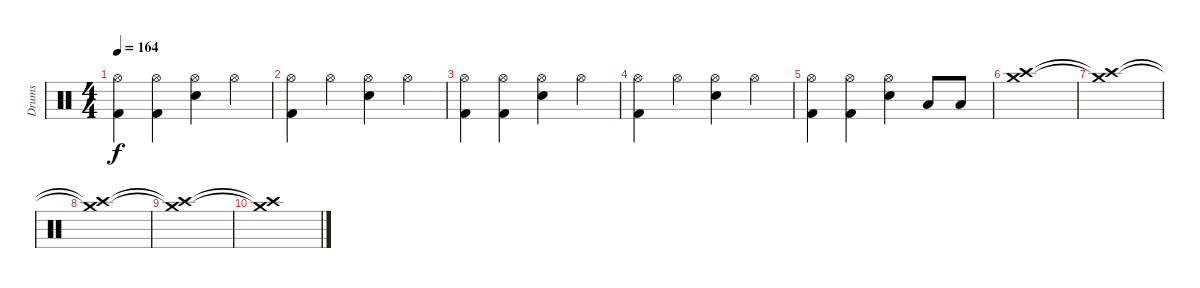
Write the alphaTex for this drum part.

\track ("Drums" "Drums") {instrument percussion}
\staff {score}
\articulation defaults
\ts (4 4)
\tempo 164
\clef neutral
\ks c
("Hi-Hat (open)" "Kick (hit) 2").4{dy f} ("Hi-Hat (open)" "Kick (hit) 2").4 ("Hi-Hat (open)" "Snare (hit) 2").4 "Hi-Hat (open)".4 |
("Hi-Hat (open)" "Kick (hit) 2").4 "Hi-Hat (open)".4 ("Hi-Hat (open)" "Snare (hit) 2").4 "Hi-Hat (open)".4 |
("Hi-Hat (open)" "Kick (hit) 2").4 ("Hi-Hat (open)" "Kick (hit) 2").4 ("Hi-Hat (open)" "Snare (hit) 2").4 "Hi-Hat (open)".4 |
("Hi-Hat (open)" "Kick (hit) 2").4 "Hi-Hat (open)".4 ("Hi-Hat (open)" "Snare (hit) 2").4 "Hi-Hat (open)".4 |
("Hi-Hat (open)" "Kick (hit) 2").4 ("Hi-Hat (open)" "Kick (hit) 2").4 ("Hi-Hat (open)" "Snare (hit) 2").4 "Low Tom (hit)".8 "Low Tom (hit)".8 |
("Crash high (hit)" "Crash medium (hit)").1 |
("Crash high (hit)"{t} "Crash medium (hit)"{t}).1 |
("Crash high (hit)"{t} "Crash medium (hit)"{t}).1 |
("Crash high (hit)"{t} "Crash medium (hit)"{t}).1 |
("Crash high (hit)"{t} "Crash medium (hit)"{t}).1
